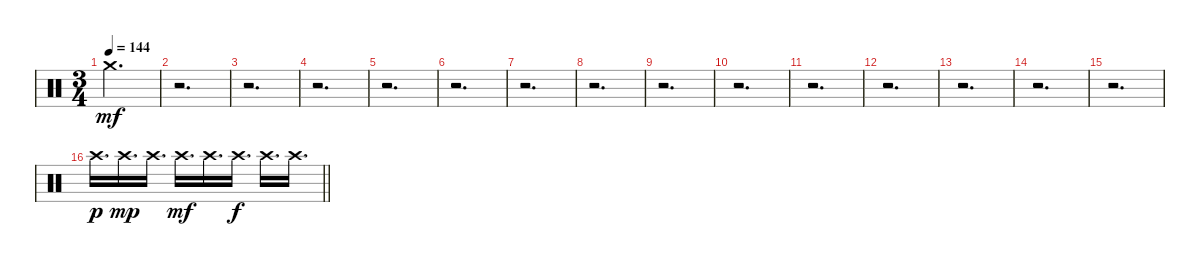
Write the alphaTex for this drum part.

\track "" {instrument percussion}
\staff {score}
\articulation defaults
\ts (3 4)
\tempo 144
\clef neutral
\ks c "Crash medium (hit)".2{d dy mf}
|
r.2{d} |
r.2{d} |
r.2{d} |
r.2{d} |
r.2{d} |
r.2{d} |
r.2{d} |
r.2{d} |
r.2{d} |
r.2{d} |
r.2{d} |
r.2{d} |
r.2{d} |
r.2{d} |
\barLineRight lightlight "Crash high (hit)".16{d dy p} "Crash high (hit)".16{d dy mp} "Crash high (hit)".16{d} "Crash high (hit)".16{d dy mf} "Crash high (hit)".16{d} "Crash high (hit)".16{d dy f} "Crash high (hit)".16{d} "Crash high (hit)".16{d}
